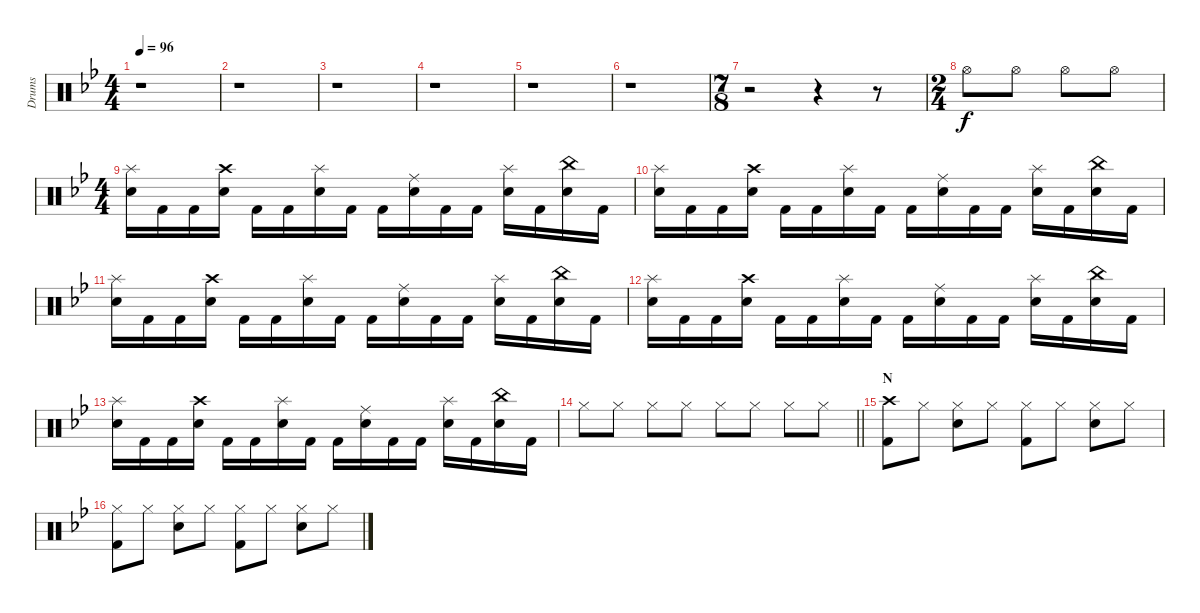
\track ("Drums" "Drums") {instrument percussion}
\staff {score}
\articulation defaults
\ts (4 4)
\tempo 96
\clef neutral
\ks gminor
r.1{dy f} |
r.1 |
r.1 |
r.1 |
r.1 |
r.1 |
\ts (7 8)
r.2 r.4 r.8 |
\ts (2 4)
"Hi-Hat (open)".8 "Hi-Hat (open)".8 "Hi-Hat (open)".8 "Hi-Hat (open)".8 |
\ts (4 4)
("Electric Snare (hit)" "Splash (hit)").16 "Kick (hit) 2".16 "Kick (hit) 2".16 ("Electric Snare (hit)" "Crash high (hit)").16 "Kick (hit) 2".16 "Kick (hit) 2".16 ("Electric Snare (hit)" "Splash (hit)").16 "Kick (hit) 2".16 "Kick (hit) 2".16 ("Ride (middle)" "Electric Snare (hit)").16 "Kick (hit) 2".16 "Kick (hit) 2".16 ("Splash (hit)" "Electric Snare (hit)").16 "Kick (hit) 2".16 ("China (hit)" "Electric Snare (hit)").16 "Kick (hit) 2".16 |
("Electric Snare (hit)" "Splash (hit)").16 "Kick (hit) 2".16 "Kick (hit) 2".16 ("Electric Snare (hit)" "Crash high (hit)").16 "Kick (hit) 2".16 "Kick (hit) 2".16 ("Electric Snare (hit)" "Splash (hit)").16 "Kick (hit) 2".16 "Kick (hit) 2".16 ("Ride (middle)" "Electric Snare (hit)").16 "Kick (hit) 2".16 "Kick (hit) 2".16 ("Splash (hit)" "Electric Snare (hit)").16 "Kick (hit) 2".16 ("China (hit)" "Electric Snare (hit)").16 "Kick (hit) 2".16 |
("Electric Snare (hit)" "Splash (hit)").16 "Kick (hit) 2".16 "Kick (hit) 2".16 ("Electric Snare (hit)" "Crash high (hit)").16 "Kick (hit) 2".16 "Kick (hit) 2".16 ("Electric Snare (hit)" "Splash (hit)").16 "Kick (hit) 2".16 "Kick (hit) 2".16 ("Ride (middle)" "Electric Snare (hit)").16 "Kick (hit) 2".16 "Kick (hit) 2".16 ("Splash (hit)" "Electric Snare (hit)").16 "Kick (hit) 2".16 ("China (hit)" "Electric Snare (hit)").16 "Kick (hit) 2".16 |
("Electric Snare (hit)" "Splash (hit)").16 "Kick (hit) 2".16 "Kick (hit) 2".16 ("Electric Snare (hit)" "Crash high (hit)").16 "Kick (hit) 2".16 "Kick (hit) 2".16 ("Electric Snare (hit)" "Splash (hit)").16 "Kick (hit) 2".16 "Kick (hit) 2".16 ("Ride (middle)" "Electric Snare (hit)").16 "Kick (hit) 2".16 "Kick (hit) 2".16 ("Splash (hit)" "Electric Snare (hit)").16 "Kick (hit) 2".16 ("China (hit)" "Electric Snare (hit)").16 "Kick (hit) 2".16 |
("Electric Snare (hit)" "Splash (hit)").16 "Kick (hit) 2".16 "Kick (hit) 2".16 ("Electric Snare (hit)" "Crash high (hit)").16 "Kick (hit) 2".16 "Kick (hit) 2".16 ("Electric Snare (hit)" "Splash (hit)").16 "Kick (hit) 2".16 "Kick (hit) 2".16 ("Ride (middle)" "Electric Snare (hit)").16 "Kick (hit) 2".16 "Kick (hit) 2".16 ("Splash (hit)" "Electric Snare (hit)").16 "Kick (hit) 2".16 ("China (hit)" "Electric Snare (hit)").16 "Kick (hit) 2".16 |
\barLineRight lightlight "Hi-Hat (closed)".8 "Hi-Hat (closed)".8 "Hi-Hat (closed)".8 "Hi-Hat (closed)".8 "Hi-Hat (closed)".8 "Hi-Hat (closed)".8 "Hi-Hat (closed)".8 "Hi-Hat (closed)".8
|
\section ("" "N")
("Crash high (hit)" "Kick (hit) 2").8 "Hi-Hat (closed)".8 ("Hi-Hat (closed)" "Electric Snare (hit)").8 "Hi-Hat (closed)".8 ("Hi-Hat (closed)" "Kick (hit) 2").8 "Hi-Hat (closed)".8 ("Hi-Hat (closed)" "Electric Snare (hit)").8 "Hi-Hat (closed)".8 |
("Hi-Hat (closed)" "Kick (hit) 2").8 "Hi-Hat (closed)".8 ("Hi-Hat (closed)" "Electric Snare (hit)").8 "Hi-Hat (closed)".8 ("Hi-Hat (closed)" "Kick (hit) 2").8 "Hi-Hat (closed)".8 ("Hi-Hat (closed)" "Electric Snare (hit)").8 "Hi-Hat (closed)".8
